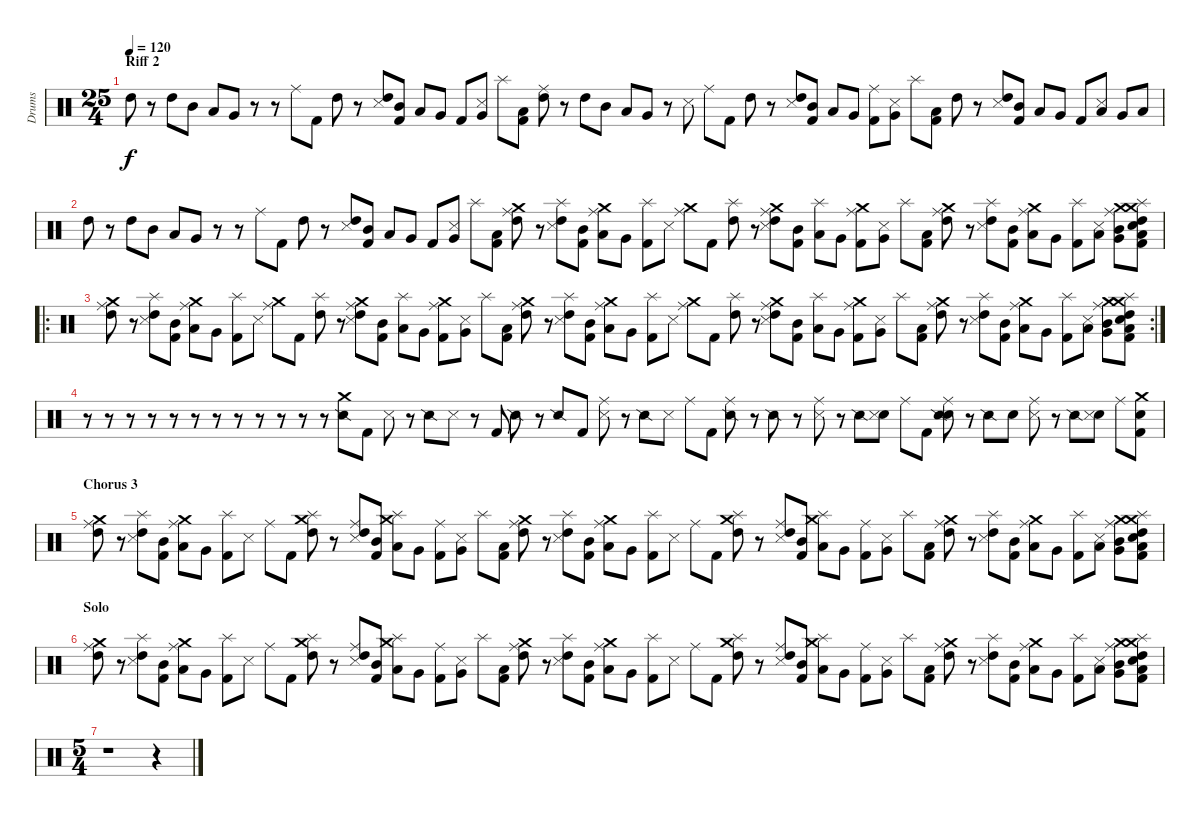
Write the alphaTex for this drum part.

\track ("Drums" "Drums") {instrument percussion}
\staff {score}
\articulation defaults
\ts (25 4)
\section ("" "Riff 2")
\tempo 120
\clef neutral
\ks c "High Tom (hit)".8{dy f}
r.8 "High Tom (hit)".8 "Mid Tom (hit)".8 "Low Tom (hit)".8 "Very Low Tom (hit)".8 r.8 r.8 "Ride (middle)".8 "Kick (hit) 2".8 "High Tom (hit)".8 r.8 ("High Tom (hit)" "Snare (side stick) 3").8 ("Mid Tom (hit)" "Kick (hit) 2").8 "Low Tom (hit)".8 "Very Low Tom (hit)".8 "Kick (hit) 2".8 ("Very Low Tom (hit)" "Snare (side stick) 3").8 "Splash (hit)".8 ("Low Tom (hit)" "Kick (hit) 2").8 ("Ride (middle)" "High Tom (hit)").8 r.8 "High Tom (hit)".8 "Mid Tom (hit)".8 "Low Tom (hit)".8 "Very Low Tom (hit)".8 r.8 "Snare (side stick) 3".8 "Ride (middle)".8 "Kick (hit) 2".8 "High Tom (hit)".8 r.8 ("High Tom (hit)" "Snare (side stick) 3").8 ("Mid Tom (hit)" "Kick (hit) 2").8 "Low Tom (hit)".8 "Very Low Tom (hit)".8 ("Ride (middle)" "Kick (hit) 2").8 ("Very Low Tom (hit)" "Snare (side stick) 3").8 "Splash (hit)".8 ("Low Tom (hit)" "Kick (hit) 2").8 "High Tom (hit)".8 r.8 ("High Tom (hit)" "Snare (side stick) 3").8 ("Mid Tom (hit)" "Kick (hit) 2").8 "Low Tom (hit)".8 "Very Low Tom (hit)".8 "Kick (hit) 2".8 ("Low Tom (hit)" "Snare (side stick) 3").8 "Very Low Tom (hit)".8 "Low Tom (hit)".8 |
"High Tom (hit)".8 r.8 "High Tom (hit)".8 "Mid Tom (hit)".8 "Low Tom (hit)".8 "Very Low Tom (hit)".8 r.8 r.8 "Ride (middle)".8 "Kick (hit) 2".8 "High Tom (hit)".8 r.8 ("High Tom (hit)" "Snare (side stick) 3").8 ("Mid Tom (hit)" "Kick (hit) 2").8 "Low Tom (hit)".8 "Very Low Tom (hit)".8 "Kick (hit) 2".8 ("Very Low Tom (hit)" "Snare (side stick) 3").8 "Splash (hit)".8 ("Low Tom (hit)" "Kick (hit) 2").8 ("Crash medium (hit)" "Ride (middle)" "High Tom (hit)").8 r.8 ("Splash (hit)" "High Tom (hit)" "Snare (side stick) 3").8 ("Mid Tom (hit)" "Kick (hit) 2").8 ("Crash medium (hit)" "Ride (middle)" "Low Tom (hit)").8 "Very Low Tom (hit)".8 ("Splash (hit)" "Kick (hit) 2").8 "Snare (side stick) 3".8 ("Crash medium (hit)" "Ride (middle)").8 "Kick (hit) 2".8 ("Splash (hit)" "High Tom (hit)").8 r.8 ("Crash medium (hit)" "Ride (middle)" "High Tom (hit)" "Snare (side stick) 3").8 ("Mid Tom (hit)" "Kick (hit) 2").8 ("Splash (hit)" "Low Tom (hit)").8 "Very Low Tom (hit)".8 ("Crash medium (hit)" "Ride (middle)" "Kick (hit) 2").8 ("Very Low Tom (hit)" "Snare (side stick) 3").8 "Splash (hit)".8 ("Low Tom (hit)" "Kick (hit) 2").8 ("Crash medium (hit)" "Ride (middle)" "High Tom (hit)").8 r.8 ("Splash (hit)" "High Tom (hit)" "Snare (side stick) 3").8 ("Mid Tom (hit)" "Kick (hit) 2").8 ("Crash medium (hit)" "Ride (middle)" "Low Tom (hit)").8 "Very Low Tom (hit)".8 ("Splash (hit)" "Kick (hit) 2").8 ("Low Tom (hit)" "Snare (side stick) 3").8 ("Crash medium (hit)" "Ride (middle)" "Mid Tom (hit)" "Very Low Tom (hit)").8 ("Crash medium (hit)" "Splash (hit)" "High Tom (hit)" "Low Tom (hit)" "Electric Snare (hit)" "Kick (hit) 2").8 |
\ro
\rc 2
("Crash medium (hit)" "Ride (middle)" "High Tom (hit)").8 r.8 ("Splash (hit)" "High Tom (hit)" "Snare (side stick) 3").8 ("Mid Tom (hit)" "Kick (hit) 2").8 ("Crash medium (hit)" "Ride (middle)" "Low Tom (hit)").8 "Very Low Tom (hit)".8 ("Splash (hit)" "Kick (hit) 2").8 "Snare (side stick) 3".8 ("Crash medium (hit)" "Ride (middle)").8 "Kick (hit) 2".8 ("Splash (hit)" "High Tom (hit)").8 r.8 ("Crash medium (hit)" "Ride (middle)" "High Tom (hit)" "Snare (side stick) 3").8 ("Mid Tom (hit)" "Kick (hit) 2").8 ("Splash (hit)" "Low Tom (hit)").8 "Very Low Tom (hit)".8 ("Crash medium (hit)" "Ride (middle)" "Kick (hit) 2").8 ("Very Low Tom (hit)" "Snare (side stick) 3").8 "Splash (hit)".8 ("Low Tom (hit)" "Kick (hit) 2").8 ("Crash medium (hit)" "Ride (middle)" "High Tom (hit)").8 r.8 ("Splash (hit)" "High Tom (hit)" "Snare (side stick) 3").8 ("Mid Tom (hit)" "Kick (hit) 2").8 ("Crash medium (hit)" "Ride (middle)" "Low Tom (hit)").8 "Very Low Tom (hit)".8 ("Splash (hit)" "Kick (hit) 2").8 "Snare (side stick) 3".8 ("Crash medium (hit)" "Ride (middle)").8 "Kick (hit) 2".8 ("Splash (hit)" "High Tom (hit)").8 r.8 ("Crash medium (hit)" "Ride (middle)" "High Tom (hit)" "Snare (side stick) 3").8 ("Mid Tom (hit)" "Kick (hit) 2").8 ("Splash (hit)" "Low Tom (hit)").8 "Very Low Tom (hit)".8 ("Crash medium (hit)" "Ride (middle)" "Kick (hit) 2").8 ("Very Low Tom (hit)" "Snare (side stick) 3").8 "Splash (hit)".8 ("Low Tom (hit)" "Kick (hit) 2").8 ("Crash medium (hit)" "Ride (middle)" "High Tom (hit)").8 r.8 ("Splash (hit)" "High Tom (hit)" "Snare (side stick) 3").8 ("Mid Tom (hit)" "Kick (hit) 2").8 ("Crash medium (hit)" "Ride (middle)" "Low Tom (hit)").8 "Very Low Tom (hit)".8 ("Splash (hit)" "Kick (hit) 2").8 ("Low Tom (hit)" "Snare (side stick) 3").8 ("Crash medium (hit)" "Ride (middle)" "Mid Tom (hit)" "Very Low Tom (hit)").8 ("Crash medium (hit)" "Splash (hit)" "High Tom (hit)" "Low Tom (hit)" "Electric Snare (hit)" "Kick (hit) 2").8 |
r.8 r.8 r.8 r.8 r.8 r.8 r.8 r.8 r.8 r.8 r.8 r.8 ("Crash medium (hit)" "Snare (side stick) 2").8 "Kick (hit) 2".8 "Snare (side stick) 3".8 r.8 "Snare (side stick) 2".8 "Snare (side stick) 3".8 r.8 "Kick (hit) 2".8 "Snare (side stick) 2".8 r.8 "Snare (side stick) 2".8 "Kick (hit) 2".8 ("Ride (middle)" "Snare (side stick) 3").8 r.8 "Snare (side stick) 2".8 "Snare (side stick) 3".8 "Ride (middle)".8 "Kick (hit) 2".8 ("Ride (middle)" "Snare (side stick) 2").8 r.8 "Snare (side stick) 2".8 r.8 ("Ride (middle)" "Snare (side stick) 3").8 r.8 "Snare (side stick) 2".8 ("Electric Snare (hit)" "Snare (side stick) 3").8 "Ride (middle)".8 "Kick (hit) 2".8 ("Ride (middle)" "Electric Snare (hit)" "Snare (side stick) 2").8 r.8 "Snare (side stick) 2".8 "Electric Snare (hit)".8 ("Ride (middle)" "Snare (side stick) 3").8 r.8 "Snare (side stick) 2".8 ("Electric Snare (hit)" "Snare (side stick) 3").8 "Ride (middle)".8 ("Crash medium (hit)" "Electric Snare (hit)" "Kick (hit) 2").8 |
\section ("" "Chorus 3")
("Crash medium (hit)" "Ride (middle)" "High Tom (hit)").8 r.8 ("Splash (hit)" "High Tom (hit)" "Snare (side stick) 3").8 ("Mid Tom (hit)" "Kick (hit) 2").8 ("Crash medium (hit)" "Ride (middle)" "Low Tom (hit)").8 "Very Low Tom (hit)".8 ("Splash (hit)" "Kick (hit) 2").8 "Snare (side stick) 3".8 "Ride (middle)".8 "Kick (hit) 2".8 ("Crash medium (hit)" "Splash (hit)" "High Tom (hit)").8 r.8 ("Ride (middle)" "High Tom (hit)" "Snare (side stick) 3").8 ("Mid Tom (hit)" "Kick (hit) 2").8 ("Crash medium (hit)" "Splash (hit)" "Low Tom (hit)").8 "Very Low Tom (hit)".8 ("Ride (middle)" "Kick (hit) 2").8 ("Very Low Tom (hit)" "Snare (side stick) 3").8 "Splash (hit)".8 ("Low Tom (hit)" "Kick (hit) 2").8 ("Crash medium (hit)" "Ride (middle)" "High Tom (hit)").8 r.8 ("Splash (hit)" "High Tom (hit)" "Snare (side stick) 3").8 ("Mid Tom (hit)" "Kick (hit) 2").8 ("Crash medium (hit)" "Ride (middle)" "Low Tom (hit)").8 "Very Low Tom (hit)".8 ("Splash (hit)" "Kick (hit) 2").8 "Snare (side stick) 3".8 "Ride (middle)".8 "Kick (hit) 2".8 ("Crash medium (hit)" "Splash (hit)" "High Tom (hit)").8 r.8 ("Ride (middle)" "High Tom (hit)" "Snare (side stick) 3").8 ("Mid Tom (hit)" "Kick (hit) 2").8 ("Crash medium (hit)" "Splash (hit)" "Low Tom (hit)").8 "Very Low Tom (hit)".8 ("Ride (middle)" "Kick (hit) 2").8 ("Very Low Tom (hit)" "Snare (side stick) 3").8 "Splash (hit)".8 ("Low Tom (hit)" "Kick (hit) 2").8 ("Crash medium (hit)" "Ride (middle)" "High Tom (hit)").8 r.8 ("Splash (hit)" "High Tom (hit)" "Snare (side stick) 3").8 ("Mid Tom (hit)" "Kick (hit) 2").8 ("Crash medium (hit)" "Ride (middle)" "Low Tom (hit)").8 "Very Low Tom (hit)".8 ("Splash (hit)" "Kick (hit) 2").8 ("Low Tom (hit)" "Snare (side stick) 3").8 ("Crash medium (hit)" "Ride (middle)" "Mid Tom (hit)" "Very Low Tom (hit)").8 ("Crash medium (hit)" "Splash (hit)" "High Tom (hit)" "Low Tom (hit)" "Electric Snare (hit)" "Kick (hit) 2").8 |
\section ("" "Solo")
("Crash medium (hit)" "Ride (middle)" "High Tom (hit)").8 r.8 ("Splash (hit)" "High Tom (hit)" "Snare (side stick) 3").8 ("Mid Tom (hit)" "Kick (hit) 2").8 ("Crash medium (hit)" "Ride (middle)" "Low Tom (hit)").8 "Very Low Tom (hit)".8 ("Splash (hit)" "Kick (hit) 2").8 "Snare (side stick) 3".8 "Ride (middle)".8 "Kick (hit) 2".8 ("Crash medium (hit)" "Splash (hit)" "High Tom (hit)").8 r.8 ("Ride (middle)" "High Tom (hit)" "Snare (side stick) 3").8 ("Mid Tom (hit)" "Kick (hit) 2").8 ("Crash medium (hit)" "Splash (hit)" "Low Tom (hit)").8 "Very Low Tom (hit)".8 ("Ride (middle)" "Kick (hit) 2").8 ("Very Low Tom (hit)" "Snare (side stick) 3").8 "Splash (hit)".8 ("Low Tom (hit)" "Kick (hit) 2").8 ("Crash medium (hit)" "Ride (middle)" "High Tom (hit)").8 r.8 ("Splash (hit)" "High Tom (hit)" "Snare (side stick) 3").8 ("Mid Tom (hit)" "Kick (hit) 2").8 ("Crash medium (hit)" "Ride (middle)" "Low Tom (hit)").8 "Very Low Tom (hit)".8 ("Splash (hit)" "Kick (hit) 2").8 "Snare (side stick) 3".8 "Ride (middle)".8 "Kick (hit) 2".8 ("Crash medium (hit)" "Splash (hit)" "High Tom (hit)").8 r.8 ("Ride (middle)" "High Tom (hit)" "Snare (side stick) 3").8 ("Mid Tom (hit)" "Kick (hit) 2").8 ("Crash medium (hit)" "Splash (hit)" "Low Tom (hit)").8 "Very Low Tom (hit)".8 ("Ride (middle)" "Kick (hit) 2").8 ("Very Low Tom (hit)" "Snare (side stick) 3").8 "Splash (hit)".8 ("Low Tom (hit)" "Kick (hit) 2").8 ("Crash medium (hit)" "Ride (middle)" "High Tom (hit)").8 r.8 ("Splash (hit)" "High Tom (hit)" "Snare (side stick) 3").8 ("Mid Tom (hit)" "Kick (hit) 2").8 ("Crash medium (hit)" "Ride (middle)" "Low Tom (hit)").8 "Very Low Tom (hit)".8 ("Splash (hit)" "Kick (hit) 2").8 ("Low Tom (hit)" "Snare (side stick) 3").8 ("Crash medium (hit)" "Ride (middle)" "Mid Tom (hit)" "Very Low Tom (hit)").8 ("Crash medium (hit)" "Splash (hit)" "High Tom (hit)" "Low Tom (hit)" "Electric Snare (hit)" "Kick (hit) 2").8 |
\ts (5 4)
r.1 r.4
